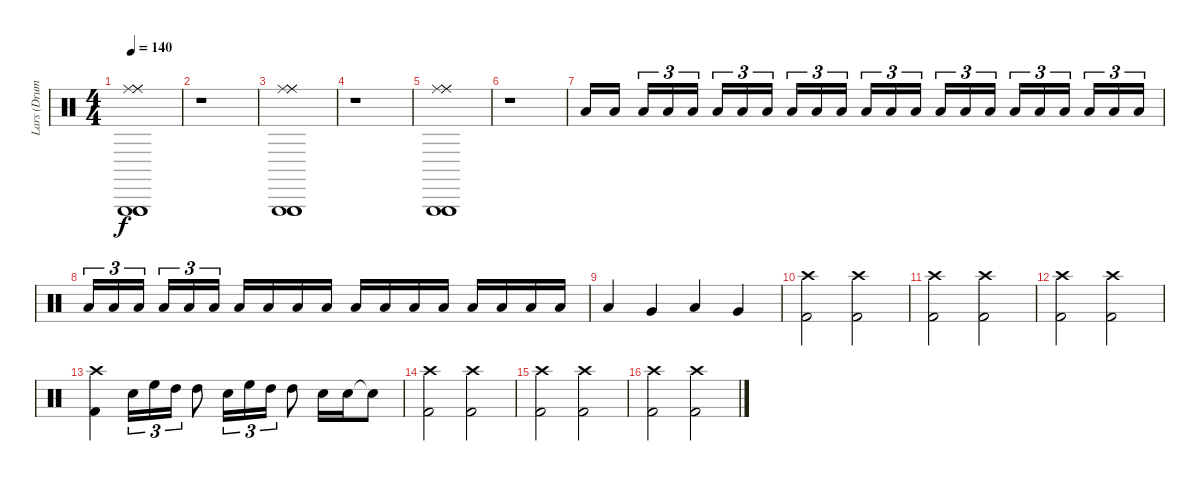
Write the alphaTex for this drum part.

\track ("Lars (Drums)" "Lars (Drum") {instrument percussion}
\staff {score}
\articulation defaults
\ts (4 4)
\tempo 140
\clef neutral
\ks c
("Ride (middle)" "Ride (middle)" "Ride (middle)" "Triangle (hit)" "Triangle (hit)" "Triangle (hit)").1{dy f} |
r.1 |
("Ride (middle)" "Ride (middle)" "Ride (middle)" "Triangle (hit)" "Triangle (hit)" "Triangle (hit)").1 |
r.1 |
("Ride (middle)" "Ride (middle)" "Ride (middle)" "Triangle (hit)" "Triangle (hit)" "Triangle (hit)").1 |
r.1 |
"Low Floor Tom (hit)".16 "Low Floor Tom (hit)".16 "Low Floor Tom (hit)".16{tu (3 2)} "Low Floor Tom (hit)".16{tu (3 2)} "Low Floor Tom (hit)".16{tu (3 2)} "Low Floor Tom (hit)".16{tu (3 2)} "Low Floor Tom (hit)".16{tu (3 2)} "Low Floor Tom (hit)".16{tu (3 2)} "Low Floor Tom (hit)".16{tu (3 2)} "Low Floor Tom (hit)".16{tu (3 2)} "Low Floor Tom (hit)".16{tu (3 2)} "Low Floor Tom (hit)".16{tu (3 2)} "Low Floor Tom (hit)".16{tu (3 2)} "Low Floor Tom (hit)".16{tu (3 2)} "Low Floor Tom (hit)".16{tu (3 2)} "Low Floor Tom (hit)".16{tu (3 2)} "Low Floor Tom (hit)".16{tu (3 2)} "Low Floor Tom (hit)".16{tu (3 2)} "Low Floor Tom (hit)".16{tu (3 2)} "Low Floor Tom (hit)".16{tu (3 2)} "Low Floor Tom (hit)".16{tu (3 2)} "Low Floor Tom (hit)".16{tu (3 2)} "Low Floor Tom (hit)".16{tu (3 2)} |
"Low Floor Tom (hit)".16{tu (3 2)} "Low Floor Tom (hit)".16{tu (3 2)} "Low Floor Tom (hit)".16{tu (3 2)} "Low Floor Tom (hit)".16{tu (3 2)} "Low Floor Tom (hit)".16{tu (3 2)} "Low Floor Tom (hit)".16{tu (3 2)} "Low Floor Tom (hit)".16 "Low Floor Tom (hit)".16 "Low Floor Tom (hit)".16 "Low Floor Tom (hit)".16 "Low Floor Tom (hit)".16 "Low Floor Tom (hit)".16 "Low Floor Tom (hit)".16 "Low Floor Tom (hit)".16 "Low Floor Tom (hit)".16 "Low Floor Tom (hit)".16 "Low Floor Tom (hit)".16 "Low Floor Tom (hit)".16 |
"Low Tom (hit)".4 "Very Low Tom (hit)".4 "Low Tom (hit)".4 "Very Low Tom (hit)".4 |
("Crash high (hit)" "Kick (hit) 2").2 ("Crash high (hit)" "Kick (hit) 2").2 |
("Crash high (hit)" "Kick (hit) 2").2 ("Crash high (hit)" "Kick (hit) 2").2 |
("Crash high (hit)" "Kick (hit) 2").2 ("Crash high (hit)" "Kick (hit) 2").2 |
("Crash high (hit)" "Kick (hit) 2").4 "Snare (hit) 2".16{tu (3 2)} "High Floor Tom (hit)".16{tu (3 2)} "High Tom (hit)".16{tu (3 2)} "High Tom (hit)".8 "Snare (hit) 2".16{tu (3 2)} "High Floor Tom (hit)".16{tu (3 2)} "High Tom (hit)".16{tu (3 2)} "High Tom (hit)".8 "Snare (hit) 2".16 "Snare (hit) 2".16 "Snare (hit)"{t}.8 |
("Crash high (hit)" "Kick (hit) 2").2 ("Crash high (hit)" "Kick (hit) 2").2 |
("Crash high (hit)" "Kick (hit) 2").2 ("Crash high (hit)" "Kick (hit) 2").2 |
("Crash high (hit)" "Kick (hit) 2").2 ("Crash high (hit)" "Kick (hit) 2").2
